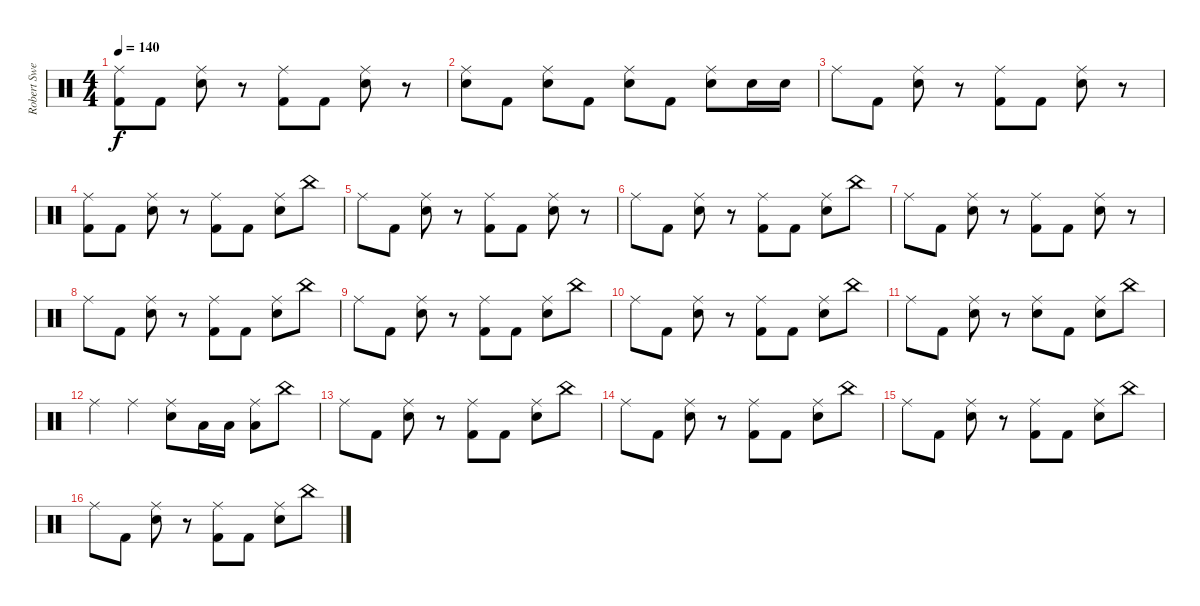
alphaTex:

\track ("Robert Sweet" "Robert Swe") {instrument percussion}
\staff {score}
\articulation defaults
\ts (4 4)
\tempo 140
\clef neutral
\ks c
("Ride (middle)" "Kick (hit) 2").8{dy f} "Kick (hit) 2".8 ("Ride (middle)" "Electric Snare (hit)").8 r.8 ("Ride (middle)" "Kick (hit) 2").8 "Kick (hit) 2".8 ("Ride (middle)" "Electric Snare (hit)").8 r.8 |
("Ride (middle)" "Electric Snare (hit)").8 "Kick (hit) 2".8 ("Ride (middle)" "Electric Snare (hit)").8 "Kick (hit) 2".8 ("Ride (middle)" "Electric Snare (hit)").8 "Kick (hit) 2".8 ("Ride (middle)" "Electric Snare (hit)").8 "Electric Snare (hit)".16 "Electric Snare (hit)".16 |
"Ride (middle)".8 "Kick (hit) 2".8 ("Ride (middle)" "Electric Snare (hit)").8 r.8 ("Ride (middle)" "Kick (hit) 2").8 "Kick (hit) 2".8 ("Ride (middle)" "Electric Snare (hit)").8 r.8 |
("Ride (middle)" "Kick (hit) 2").8 "Kick (hit) 2".8 ("Ride (middle)" "Electric Snare (hit)").8 r.8 ("Ride (middle)" "Kick (hit) 2").8 "Kick (hit) 2".8 ("Ride (middle)" "Electric Snare (hit)").8 "China (hit)".8 |
"Ride (middle)".8 "Kick (hit) 2".8 ("Ride (middle)" "Electric Snare (hit)").8 r.8 ("Ride (middle)" "Kick (hit) 2").8 "Kick (hit) 2".8 ("Ride (middle)" "Electric Snare (hit)").8 r.8 |
"Ride (middle)".8 "Kick (hit) 2".8 ("Ride (middle)" "Electric Snare (hit)").8 r.8 ("Ride (middle)" "Kick (hit) 2").8 "Kick (hit) 2".8 ("Ride (middle)" "Electric Snare (hit)").8 "China (hit)".8 |
"Ride (middle)".8 "Kick (hit) 2".8 ("Ride (middle)" "Electric Snare (hit)").8 r.8 ("Ride (middle)" "Kick (hit) 2").8 "Kick (hit) 2".8 ("Ride (middle)" "Electric Snare (hit)").8 r.8 |
"Ride (middle)".8 "Kick (hit) 2".8 ("Ride (middle)" "Electric Snare (hit)").8 r.8 ("Ride (middle)" "Kick (hit) 2").8 "Kick (hit) 2".8 ("Ride (middle)" "Electric Snare (hit)").8 "China (hit)".8 |
"Ride (middle)".8 "Kick (hit) 2".8 ("Ride (middle)" "Electric Snare (hit)").8 r.8 ("Ride (middle)" "Kick (hit) 2").8 "Kick (hit) 2".8 ("Ride (middle)" "Electric Snare (hit)").8 "China (hit)".8 |
"Ride (middle)".8 "Kick (hit) 2".8 ("Ride (middle)" "Electric Snare (hit)").8 r.8 ("Ride (middle)" "Kick (hit) 2").8 "Kick (hit) 2".8 ("Ride (middle)" "Electric Snare (hit)").8 "China (hit)".8 |
"Ride (middle)".8 "Kick (hit) 2".8 ("Ride (middle)" "Electric Snare (hit)").8 r.8 ("Ride (middle)" "Electric Snare (hit)").8 "Kick (hit) 2".8 ("Ride (middle)" "Electric Snare (hit)").8 "China (hit)".8 |
"Ride (middle)".4 "Ride (middle)".4 ("Ride (middle)" "Electric Snare (hit)").8 "Low Floor Tom (hit)".16 "Low Floor Tom (hit)".16 ("Ride (middle)" "Low Floor Tom (hit)").8 "China (hit)".8 |
"Ride (middle)".8 "Kick (hit) 2".8 ("Ride (middle)" "Electric Snare (hit)").8 r.8 ("Ride (middle)" "Kick (hit) 2").8 "Kick (hit) 2".8 ("Ride (middle)" "Electric Snare (hit)").8 "China (hit)".8 |
"Ride (middle)".8 "Kick (hit) 2".8 ("Ride (middle)" "Electric Snare (hit)").8 r.8 ("Ride (middle)" "Kick (hit) 2").8 "Kick (hit) 2".8 ("Ride (middle)" "Electric Snare (hit)").8 "China (hit)".8 |
"Ride (middle)".8 "Kick (hit) 2".8 ("Ride (middle)" "Electric Snare (hit)").8 r.8 ("Ride (middle)" "Kick (hit) 2").8 "Kick (hit) 2".8 ("Ride (middle)" "Electric Snare (hit)").8 "China (hit)".8 |
"Ride (middle)".8 "Kick (hit) 2".8 ("Ride (middle)" "Electric Snare (hit)").8 r.8 ("Ride (middle)" "Kick (hit) 2").8 "Kick (hit) 2".8 ("Ride (middle)" "Electric Snare (hit)").8 "China (hit)".8
